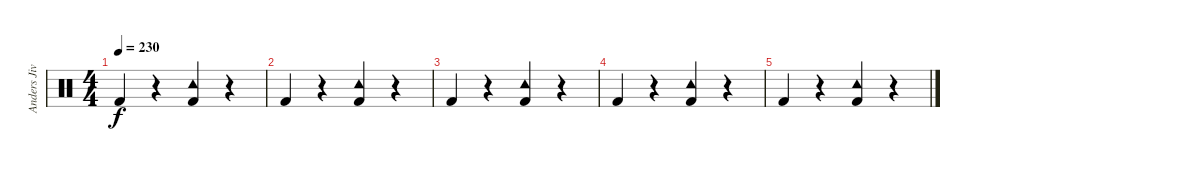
\track ("Anders Jivarp" "Anders Jiv") {instrument percussion}
\staff {score}
\articulation defaults
\ts (4 4)
\tempo 230
\clef neutral
\ks c "Kick (hit) 2".4{dy f}
r.4 ("Kick (hit) 2" "Tambourine (hit)").4 r.4 |
"Kick (hit) 2".4 r.4 ("Kick (hit) 2" "Tambourine (hit)").4 r.4 |
"Kick (hit) 2".4 r.4 ("Kick (hit) 2" "Tambourine (hit)").4 r.4 |
"Kick (hit) 2".4 r.4 ("Kick (hit) 2" "Tambourine (hit)").4 r.4 |
"Kick (hit) 2".4 r.4 ("Kick (hit) 2" "Tambourine (hit)").4 r.4
